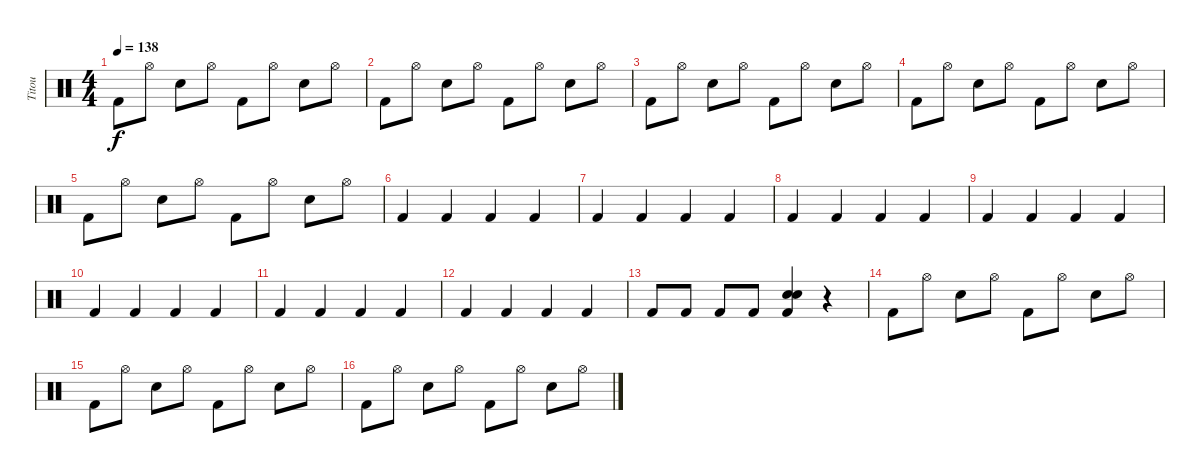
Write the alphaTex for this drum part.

\track ("Titou" "Titou") {instrument percussion}
\staff {score}
\articulation defaults
\ts (4 4)
\tempo 138
\clef neutral
\ks c "Kick (hit) 2".8{dy f} "Hi-Hat (open)".8 "Electric Snare (hit)".8 "Hi-Hat (open)".8 "Kick (hit) 2".8 "Hi-Hat (open)".8 "Electric Snare (hit)".8 "Hi-Hat (open)".8
|
"Kick (hit) 2".8 "Hi-Hat (open)".8 "Electric Snare (hit)".8 "Hi-Hat (open)".8 "Kick (hit) 2".8 "Hi-Hat (open)".8 "Electric Snare (hit)".8 "Hi-Hat (open)".8 |
"Kick (hit) 2".8 "Hi-Hat (open)".8 "Electric Snare (hit)".8 "Hi-Hat (open)".8 "Kick (hit) 2".8 "Hi-Hat (open)".8 "Electric Snare (hit)".8 "Hi-Hat (open)".8 |
"Kick (hit) 2".8 "Hi-Hat (open)".8 "Electric Snare (hit)".8 "Hi-Hat (open)".8 "Kick (hit) 2".8 "Hi-Hat (open)".8 "Electric Snare (hit)".8 "Hi-Hat (open)".8 |
"Kick (hit) 2".8 "Hi-Hat (open)".8 "Electric Snare (hit)".8 "Hi-Hat (open)".8 "Kick (hit) 2".8 "Hi-Hat (open)".8 "Electric Snare (hit)".8 "Hi-Hat (open)".8 |
"Kick (hit) 2".4 "Kick (hit) 2".4 "Kick (hit) 2".4 "Kick (hit) 2".4 |
"Kick (hit) 2".4 "Kick (hit) 2".4 "Kick (hit) 2".4 "Kick (hit) 2".4 |
"Kick (hit) 2".4 "Kick (hit) 2".4 "Kick (hit) 2".4 "Kick (hit) 2".4 |
"Kick (hit) 2".4 "Kick (hit) 2".4 "Kick (hit) 2".4 "Kick (hit) 2".4 |
"Kick (hit) 2".4 "Kick (hit) 2".4 "Kick (hit) 2".4 "Kick (hit) 2".4 |
"Kick (hit) 2".4 "Kick (hit) 2".4 "Kick (hit) 2".4 "Kick (hit) 2".4 |
"Kick (hit) 2".4 "Kick (hit) 2".4 "Kick (hit) 2".4 "Kick (hit) 2".4 |
"Kick (hit) 2".8 "Kick (hit) 2".8 "Kick (hit) 2".8 "Kick (hit) 2".8 ("Electric Snare (hit)" "Kick (hit) 2" "Electric Snare (hit)").4 r.4 |
"Kick (hit) 2".8 "Hi-Hat (open)".8 "Electric Snare (hit)".8 "Hi-Hat (open)".8 "Kick (hit) 2".8 "Hi-Hat (open)".8 "Electric Snare (hit)".8 "Hi-Hat (open)".8 |
"Kick (hit) 2".8 "Hi-Hat (open)".8 "Electric Snare (hit)".8 "Hi-Hat (open)".8 "Kick (hit) 2".8 "Hi-Hat (open)".8 "Electric Snare (hit)".8 "Hi-Hat (open)".8 |
"Kick (hit) 2".8 "Hi-Hat (open)".8 "Electric Snare (hit)".8 "Hi-Hat (open)".8 "Kick (hit) 2".8 "Hi-Hat (open)".8 "Electric Snare (hit)".8 "Hi-Hat (open)".8
